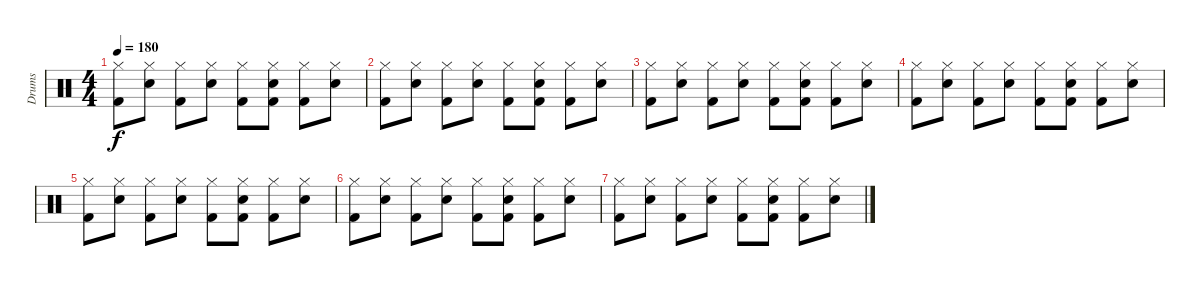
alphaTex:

\track ("Drums" "Drums") {instrument percussion}
\staff {score}
\articulation defaults
\ts (4 4)
\tempo 180
\clef neutral
\ks c
("Hi-Hat (closed)" "Kick (hit) 2").8{dy f} ("Hi-Hat (closed)" "Snare (hit) 2").8 ("Hi-Hat (closed)" "Kick (hit) 2").8 ("Hi-Hat (closed)" "Snare (hit) 2").8 ("Hi-Hat (closed)" "Kick (hit) 2").8 ("Hi-Hat (closed)" "Snare (hit) 2" "Kick (hit) 2").8 ("Hi-Hat (closed)" "Kick (hit) 2").8 ("Hi-Hat (closed)" "Snare (hit) 2").8 |
("Hi-Hat (closed)" "Kick (hit) 2").8 ("Hi-Hat (closed)" "Snare (hit) 2").8 ("Hi-Hat (closed)" "Kick (hit) 2").8 ("Hi-Hat (closed)" "Snare (hit) 2").8 ("Hi-Hat (closed)" "Kick (hit) 2").8 ("Hi-Hat (closed)" "Snare (hit) 2" "Kick (hit) 2").8 ("Hi-Hat (closed)" "Kick (hit) 2").8 ("Hi-Hat (closed)" "Snare (hit) 2").8 |
("Hi-Hat (closed)" "Kick (hit) 2").8 ("Hi-Hat (closed)" "Snare (hit) 2").8 ("Hi-Hat (closed)" "Kick (hit) 2").8 ("Hi-Hat (closed)" "Snare (hit) 2").8 ("Hi-Hat (closed)" "Kick (hit) 2").8 ("Hi-Hat (closed)" "Snare (hit) 2" "Kick (hit) 2").8 ("Hi-Hat (closed)" "Kick (hit) 2").8 ("Hi-Hat (closed)" "Snare (hit) 2").8 |
("Hi-Hat (closed)" "Kick (hit) 2").8 ("Hi-Hat (closed)" "Snare (hit) 2").8 ("Hi-Hat (closed)" "Kick (hit) 2").8 ("Hi-Hat (closed)" "Snare (hit) 2").8 ("Hi-Hat (closed)" "Kick (hit) 2").8 ("Hi-Hat (closed)" "Snare (hit) 2" "Kick (hit) 2").8 ("Hi-Hat (closed)" "Kick (hit) 2").8 ("Hi-Hat (closed)" "Snare (hit) 2").8 |
("Hi-Hat (closed)" "Kick (hit) 2").8 ("Hi-Hat (closed)" "Snare (hit) 2").8 ("Hi-Hat (closed)" "Kick (hit) 2").8 ("Hi-Hat (closed)" "Snare (hit) 2").8 ("Hi-Hat (closed)" "Kick (hit) 2").8 ("Hi-Hat (closed)" "Snare (hit) 2" "Kick (hit) 2").8 ("Hi-Hat (closed)" "Kick (hit) 2").8 ("Hi-Hat (closed)" "Snare (hit) 2").8 |
("Hi-Hat (closed)" "Kick (hit) 2").8 ("Hi-Hat (closed)" "Snare (hit) 2").8 ("Hi-Hat (closed)" "Kick (hit) 2").8 ("Hi-Hat (closed)" "Snare (hit) 2").8 ("Hi-Hat (closed)" "Kick (hit) 2").8 ("Hi-Hat (closed)" "Snare (hit) 2" "Kick (hit) 2").8 ("Hi-Hat (closed)" "Kick (hit) 2").8 ("Hi-Hat (closed)" "Snare (hit) 2").8 |
("Hi-Hat (closed)" "Kick (hit) 2").8 ("Hi-Hat (closed)" "Snare (hit) 2").8 ("Hi-Hat (closed)" "Kick (hit) 2").8 ("Hi-Hat (closed)" "Snare (hit) 2").8 ("Hi-Hat (closed)" "Kick (hit) 2").8 ("Hi-Hat (closed)" "Snare (hit) 2" "Kick (hit) 2").8 ("Hi-Hat (closed)" "Kick (hit) 2").8 ("Hi-Hat (closed)" "Snare (hit) 2").8
